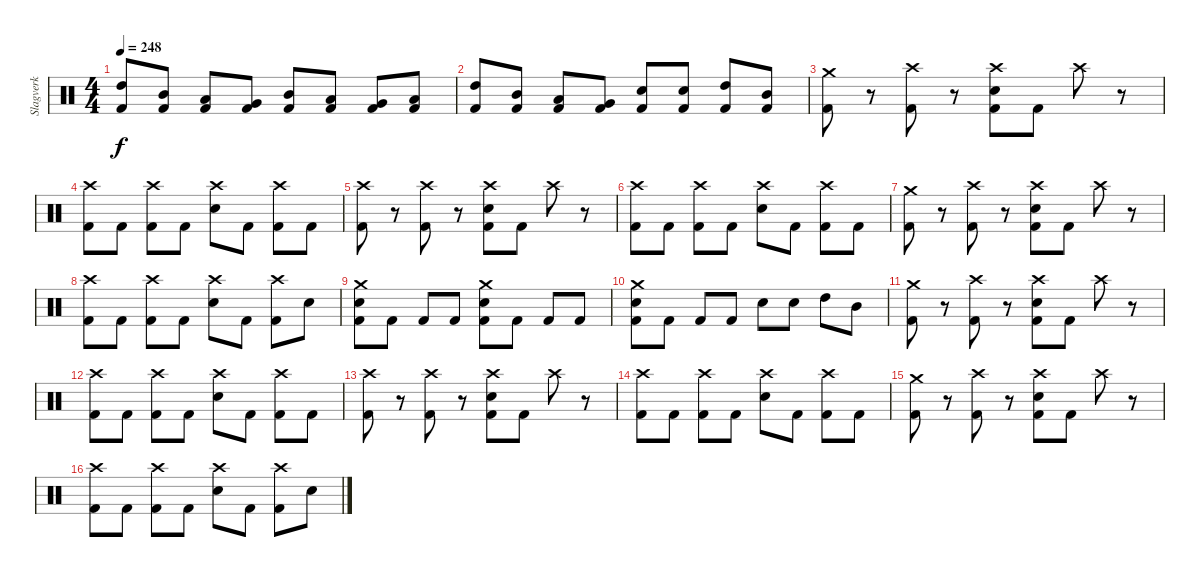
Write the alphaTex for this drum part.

\track ("Slagverk" "Slagverk") {instrument percussion}
\staff {score}
\articulation defaults
\ts (4 4)
\tempo 248
\clef neutral
\ks c
("High Tom (hit)" "Kick (hit) 2").8{dy f} ("Mid Tom (hit)" "Kick (hit) 2").8 ("Low Tom (hit)" "Kick (hit) 2").8 ("Very Low Tom (hit)" "Kick (hit) 2").8 ("Mid Tom (hit)" "Kick (hit) 2").8 ("Low Tom (hit)" "Kick (hit) 2").8 ("Very Low Tom (hit)" "Kick (hit) 2").8 ("Low Floor Tom (hit)" "Kick (hit) 2").8 |
("High Tom (hit)" "Kick (hit) 2").8 ("Mid Tom (hit)" "Kick (hit) 2").8 ("Low Tom (hit)" "Kick (hit) 2").8 ("Very Low Tom (hit)" "Kick (hit) 2").8 ("Snare (hit) 2" "Kick (hit) 2").8 ("Snare (hit) 2" "Kick (hit) 2").8 ("High Tom (hit)" "Kick (hit) 2").8 ("Mid Tom (hit)" "Kick (hit) 2").8 |
("Crash medium (hit)" "Kick (hit) 2").8 r.8 ("Crash high (hit)" "Kick (hit) 2").8 r.8 ("Crash high (hit)" "Snare (hit) 2" "Kick (hit) 2").8 "Kick (hit) 2".8 "Crash high (hit)".8 r.8 |
("Crash high (hit)" "Kick (hit) 2").8 "Kick (hit) 2".8 ("Crash high (hit)" "Kick (hit) 2").8 "Kick (hit) 2".8 ("Crash high (hit)" "Snare (hit) 2").8 "Kick (hit) 2".8 ("Crash high (hit)" "Kick (hit) 2").8 "Kick (hit) 2".8 |
("Crash high (hit)" "Kick (hit) 2").8 r.8 ("Crash high (hit)" "Kick (hit) 2").8 r.8 ("Crash high (hit)" "Snare (hit) 2" "Kick (hit) 2").8 "Kick (hit) 2".8 "Crash high (hit)".8 r.8 |
("Crash high (hit)" "Kick (hit) 2").8 "Kick (hit) 2".8 ("Crash high (hit)" "Kick (hit) 2").8 "Kick (hit) 2".8 ("Crash high (hit)" "Snare (hit) 2").8 "Kick (hit) 2".8 ("Crash high (hit)" "Kick (hit) 2").8 "Kick (hit) 2".8 |
("Crash medium (hit)" "Kick (hit) 2").8 r.8 ("Crash high (hit)" "Kick (hit) 2").8 r.8 ("Crash high (hit)" "Snare (hit) 2" "Kick (hit) 2").8 "Kick (hit) 2".8 "Crash high (hit)".8 r.8 |
("Crash high (hit)" "Kick (hit) 2").8 "Kick (hit) 2".8 ("Crash high (hit)" "Kick (hit) 2").8 "Kick (hit) 2".8 ("Crash high (hit)" "Snare (hit) 2").8 "Kick (hit) 2".8 ("Crash high (hit)" "Kick (hit) 2").8 "Snare (hit) 2".8 |
("Crash medium (hit)" "Snare (hit) 2" "Kick (hit) 2").8 "Kick (hit) 2".8 "Kick (hit) 2".8 "Kick (hit) 2".8 ("Crash medium (hit)" "Snare (hit) 2" "Kick (hit) 2").8 "Kick (hit) 2".8 "Kick (hit) 2".8 "Kick (hit) 2".8 |
("Crash medium (hit)" "Snare (hit) 2" "Kick (hit) 2").8 "Kick (hit) 2".8 "Kick (hit) 2".8 "Kick (hit) 2".8 "Snare (hit) 2".8 "Snare (hit) 2".8 "High Tom (hit)".8 "Mid Tom (hit)".8 |
("Crash medium (hit)" "Kick (hit) 2").8 r.8 ("Crash high (hit)" "Kick (hit) 2").8 r.8 ("Crash high (hit)" "Snare (hit) 2" "Kick (hit) 2").8 "Kick (hit) 2".8 "Crash high (hit)".8 r.8 |
("Crash high (hit)" "Kick (hit) 2").8 "Kick (hit) 2".8 ("Crash high (hit)" "Kick (hit) 2").8 "Kick (hit) 2".8 ("Crash high (hit)" "Snare (hit) 2").8 "Kick (hit) 2".8 ("Crash high (hit)" "Kick (hit) 2").8 "Kick (hit) 2".8 |
("Crash high (hit)" "Kick (hit) 2").8 r.8 ("Crash high (hit)" "Kick (hit) 2").8 r.8 ("Crash high (hit)" "Snare (hit) 2" "Kick (hit) 2").8 "Kick (hit) 2".8 "Crash high (hit)".8 r.8 |
("Crash high (hit)" "Kick (hit) 2").8 "Kick (hit) 2".8 ("Crash high (hit)" "Kick (hit) 2").8 "Kick (hit) 2".8 ("Crash high (hit)" "Snare (hit) 2").8 "Kick (hit) 2".8 ("Crash high (hit)" "Kick (hit) 2").8 "Kick (hit) 2".8 |
("Crash medium (hit)" "Kick (hit) 2").8 r.8 ("Crash high (hit)" "Kick (hit) 2").8 r.8 ("Crash high (hit)" "Snare (hit) 2" "Kick (hit) 2").8 "Kick (hit) 2".8 "Crash high (hit)".8 r.8 |
("Crash high (hit)" "Kick (hit) 2").8 "Kick (hit) 2".8 ("Crash high (hit)" "Kick (hit) 2").8 "Kick (hit) 2".8 ("Crash high (hit)" "Snare (hit) 2").8 "Kick (hit) 2".8 ("Crash high (hit)" "Kick (hit) 2").8 "Snare (hit) 2".8
